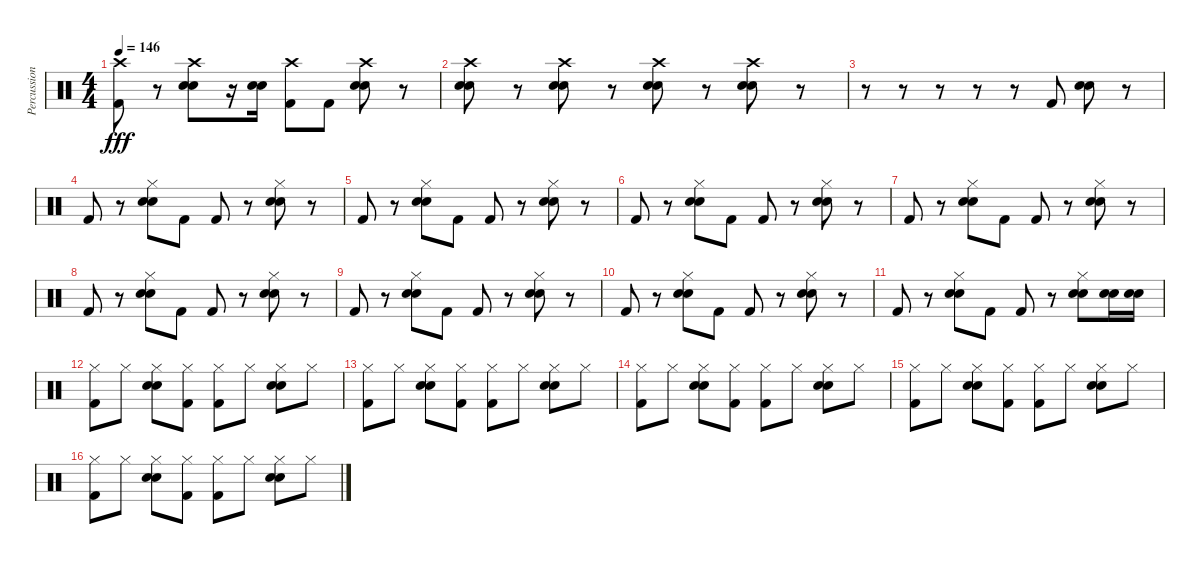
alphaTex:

\track ("Percussion" "Percussion") {instrument percussion}
\staff {score}
\articulation defaults
\ts (4 4)
\tempo 146
\clef neutral
\ks c
("Crash high (hit)" "Kick (hit) 2").8{dy fff} r.8 ("Crash high (hit)" "Electric Snare (hit)" "Snare (hit) 2").8 r.16 ("Electric Snare (hit)" "Snare (hit) 2").16 ("Crash high (hit)" "Kick (hit) 2").8 "Kick (hit) 2".8 ("Crash high (hit)" "Electric Snare (hit)" "Snare (hit) 2").8 r.8 |
("Crash high (hit)" "Electric Snare (hit)" "Snare (hit) 2").8 r.8 ("Crash high (hit)" "Electric Snare (hit)" "Snare (hit) 2").8 r.8 ("Crash high (hit)" "Electric Snare (hit)" "Snare (hit) 2").8 r.8 ("Crash high (hit)" "Electric Snare (hit)" "Snare (hit) 2").8 r.8 |
r.8 r.8 r.8 r.8 r.8 "Kick (hit) 2".8 ("Snare (hit) 2" "Electric Snare (hit)").8 r.8 |
"Kick (hit) 2".8 r.8 ("Snare (hit) 2" "Electric Snare (hit)" "Hi-Hat (closed)").8 "Kick (hit) 2".8 "Kick (hit) 2".8 r.8 ("Snare (hit) 2" "Electric Snare (hit)" "Hi-Hat (closed)").8 r.8 |
"Kick (hit) 2".8 r.8 ("Snare (hit) 2" "Electric Snare (hit)" "Hi-Hat (closed)").8 "Kick (hit) 2".8 "Kick (hit) 2".8 r.8 ("Snare (hit) 2" "Electric Snare (hit)" "Hi-Hat (closed)").8 r.8 |
"Kick (hit) 2".8 r.8 ("Snare (hit) 2" "Electric Snare (hit)" "Hi-Hat (closed)").8 "Kick (hit) 2".8 "Kick (hit) 2".8 r.8 ("Snare (hit) 2" "Electric Snare (hit)" "Hi-Hat (closed)").8 r.8 |
"Kick (hit) 2".8 r.8 ("Snare (hit) 2" "Electric Snare (hit)" "Hi-Hat (closed)").8 "Kick (hit) 2".8 "Kick (hit) 2".8 r.8 ("Snare (hit) 2" "Electric Snare (hit)" "Hi-Hat (closed)").8 r.8 |
"Kick (hit) 2".8 r.8 ("Snare (hit) 2" "Electric Snare (hit)" "Hi-Hat (closed)").8 "Kick (hit) 2".8 "Kick (hit) 2".8 r.8 ("Snare (hit) 2" "Electric Snare (hit)" "Hi-Hat (closed)").8 r.8 |
"Kick (hit) 2".8 r.8 ("Snare (hit) 2" "Electric Snare (hit)" "Hi-Hat (closed)").8 "Kick (hit) 2".8 "Kick (hit) 2".8 r.8 ("Snare (hit) 2" "Electric Snare (hit)" "Hi-Hat (closed)").8 r.8 |
"Kick (hit) 2".8 r.8 ("Snare (hit) 2" "Electric Snare (hit)" "Hi-Hat (closed)").8 "Kick (hit) 2".8 "Kick (hit) 2".8 r.8 ("Snare (hit) 2" "Electric Snare (hit)" "Hi-Hat (closed)").8 r.8 |
"Kick (hit) 2".8 r.8 ("Snare (hit) 2" "Electric Snare (hit)" "Hi-Hat (closed)").8 "Kick (hit) 2".8 "Kick (hit) 2".8 r.8 ("Snare (hit) 2" "Electric Snare (hit)" "Hi-Hat (closed)").8 ("Electric Snare (hit)" "Snare (hit) 2").16 ("Electric Snare (hit)" "Snare (hit) 2").16 |
("Hi-Hat (closed)" "Kick (hit) 2").8 "Hi-Hat (closed)".8 ("Hi-Hat (closed)" "Snare (hit) 2" "Electric Snare (hit)").8 ("Hi-Hat (closed)" "Kick (hit) 2").8 ("Hi-Hat (closed)" "Kick (hit) 2").8 "Hi-Hat (closed)".8 ("Hi-Hat (closed)" "Snare (hit) 2" "Electric Snare (hit)").8 "Hi-Hat (closed)".8 |
("Hi-Hat (closed)" "Kick (hit) 2").8 "Hi-Hat (closed)".8 ("Hi-Hat (closed)" "Snare (hit) 2" "Electric Snare (hit)").8 ("Hi-Hat (closed)" "Kick (hit) 2").8 ("Hi-Hat (closed)" "Kick (hit) 2").8 "Hi-Hat (closed)".8 ("Hi-Hat (closed)" "Snare (hit) 2" "Electric Snare (hit)").8 "Hi-Hat (closed)".8 |
("Hi-Hat (closed)" "Kick (hit) 2").8 "Hi-Hat (closed)".8 ("Hi-Hat (closed)" "Snare (hit) 2" "Electric Snare (hit)").8 ("Hi-Hat (closed)" "Kick (hit) 2").8 ("Hi-Hat (closed)" "Kick (hit) 2").8 "Hi-Hat (closed)".8 ("Hi-Hat (closed)" "Snare (hit) 2" "Electric Snare (hit)").8 "Hi-Hat (closed)".8 |
("Hi-Hat (closed)" "Kick (hit) 2").8 "Hi-Hat (closed)".8 ("Hi-Hat (closed)" "Snare (hit) 2" "Electric Snare (hit)").8 ("Hi-Hat (closed)" "Kick (hit) 2").8 ("Hi-Hat (closed)" "Kick (hit) 2").8 "Hi-Hat (closed)".8 ("Hi-Hat (closed)" "Snare (hit) 2" "Electric Snare (hit)").8 "Hi-Hat (closed)".8 |
("Hi-Hat (closed)" "Kick (hit) 2").8 "Hi-Hat (closed)".8 ("Hi-Hat (closed)" "Snare (hit) 2" "Electric Snare (hit)").8 ("Hi-Hat (closed)" "Kick (hit) 2").8 ("Hi-Hat (closed)" "Kick (hit) 2").8 "Hi-Hat (closed)".8 ("Hi-Hat (closed)" "Snare (hit) 2" "Electric Snare (hit)").8 "Hi-Hat (closed)".8
